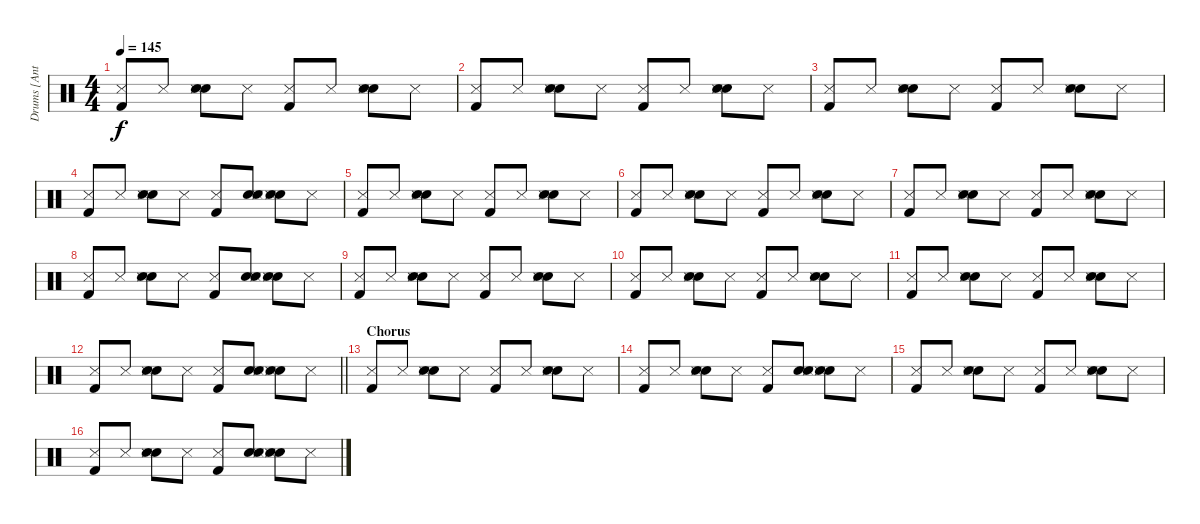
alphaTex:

\track ("Drums [Anthony Improgo]" "Drums [Ant") {instrument percussion}
\staff {score}
\articulation defaults
\ts (4 4)
\tempo 145
\clef neutral
\ks c
("Snare (side stick) 3" "Kick (hit) 2").8{dy f} "Snare (side stick) 3".8 ("Hand Clap (hit)" "Snare (hit) 2" "Snare (side stick) 3").8 "Snare (side stick) 3".8 ("Snare (side stick) 3" "Kick (hit) 2").8 "Snare (side stick) 3".8 ("Hand Clap (hit)" "Snare (hit) 2" "Snare (side stick) 3").8 "Snare (side stick) 3".8 |
("Snare (side stick) 3" "Kick (hit) 2").8 "Snare (side stick) 3".8 ("Hand Clap (hit)" "Snare (hit) 2" "Snare (side stick) 3").8 "Snare (side stick) 3".8 ("Snare (side stick) 3" "Kick (hit) 2").8 "Snare (side stick) 3".8 ("Hand Clap (hit)" "Snare (hit) 2" "Snare (side stick) 3").8 "Snare (side stick) 3".8 |
("Snare (side stick) 3" "Kick (hit) 2").8 "Snare (side stick) 3".8 ("Hand Clap (hit)" "Snare (hit) 2" "Snare (side stick) 3").8 "Snare (side stick) 3".8 ("Snare (side stick) 3" "Kick (hit) 2").8 "Snare (side stick) 3".8 ("Hand Clap (hit)" "Snare (hit) 2" "Snare (side stick) 3").8 "Snare (side stick) 3".8 |
("Snare (side stick) 3" "Kick (hit) 2").8 "Snare (side stick) 3".8 ("Hand Clap (hit)" "Snare (hit) 2" "Snare (side stick) 3").8 "Snare (side stick) 3".8 ("Snare (side stick) 3" "Kick (hit) 2").8 ("Hand Clap (hit)" "Snare (hit) 2" "Snare (side stick) 3").8 ("Hand Clap (hit)" "Snare (hit) 2" "Snare (side stick) 3").8 "Snare (side stick) 3".8 |
("Snare (side stick) 3" "Kick (hit) 2").8 "Snare (side stick) 3".8 ("Hand Clap (hit)" "Snare (hit) 2" "Snare (side stick) 3").8 "Snare (side stick) 3".8 ("Snare (side stick) 3" "Kick (hit) 2").8 "Snare (side stick) 3".8 ("Hand Clap (hit)" "Snare (hit) 2" "Snare (side stick) 3").8 "Snare (side stick) 3".8 |
("Snare (side stick) 3" "Kick (hit) 2").8 "Snare (side stick) 3".8 ("Hand Clap (hit)" "Snare (hit) 2" "Snare (side stick) 3").8 "Snare (side stick) 3".8 ("Snare (side stick) 3" "Kick (hit) 2").8 "Snare (side stick) 3".8 ("Hand Clap (hit)" "Snare (hit) 2" "Snare (side stick) 3").8 "Snare (side stick) 3".8 |
("Snare (side stick) 3" "Kick (hit) 2").8 "Snare (side stick) 3".8 ("Hand Clap (hit)" "Snare (hit) 2" "Snare (side stick) 3").8 "Snare (side stick) 3".8 ("Snare (side stick) 3" "Kick (hit) 2").8 "Snare (side stick) 3".8 ("Hand Clap (hit)" "Snare (hit) 2" "Snare (side stick) 3").8 "Snare (side stick) 3".8 |
("Snare (side stick) 3" "Kick (hit) 2").8 "Snare (side stick) 3".8 ("Hand Clap (hit)" "Snare (hit) 2" "Snare (side stick) 3").8 "Snare (side stick) 3".8 ("Snare (side stick) 3" "Kick (hit) 2").8 ("Hand Clap (hit)" "Snare (hit) 2" "Snare (side stick) 3").8 ("Hand Clap (hit)" "Snare (hit) 2" "Snare (side stick) 3").8 "Snare (side stick) 3".8 |
("Snare (side stick) 3" "Kick (hit) 2").8 "Snare (side stick) 3".8 ("Hand Clap (hit)" "Snare (hit) 2" "Snare (side stick) 3").8 "Snare (side stick) 3".8 ("Snare (side stick) 3" "Kick (hit) 2").8 "Snare (side stick) 3".8 ("Hand Clap (hit)" "Snare (hit) 2" "Snare (side stick) 3").8 "Snare (side stick) 3".8 |
("Snare (side stick) 3" "Kick (hit) 2").8 "Snare (side stick) 3".8 ("Hand Clap (hit)" "Snare (hit) 2" "Snare (side stick) 3").8 "Snare (side stick) 3".8 ("Snare (side stick) 3" "Kick (hit) 2").8 "Snare (side stick) 3".8 ("Hand Clap (hit)" "Snare (hit) 2" "Snare (side stick) 3").8 "Snare (side stick) 3".8 |
("Snare (side stick) 3" "Kick (hit) 2").8 "Snare (side stick) 3".8 ("Hand Clap (hit)" "Snare (hit) 2" "Snare (side stick) 3").8 "Snare (side stick) 3".8 ("Snare (side stick) 3" "Kick (hit) 2").8 "Snare (side stick) 3".8 ("Hand Clap (hit)" "Snare (hit) 2" "Snare (side stick) 3").8 "Snare (side stick) 3".8 |
\barLineRight lightlight
("Snare (side stick) 3" "Kick (hit) 2").8 "Snare (side stick) 3".8 ("Hand Clap (hit)" "Snare (hit) 2" "Snare (side stick) 3").8 "Snare (side stick) 3".8 ("Snare (side stick) 3" "Kick (hit) 2").8 ("Hand Clap (hit)" "Snare (hit) 2" "Snare (side stick) 3").8 ("Hand Clap (hit)" "Snare (hit) 2" "Snare (side stick) 3").8 "Snare (side stick) 3".8 |
\section ("" "Chorus")
("Snare (side stick) 3" "Kick (hit) 2").8 "Snare (side stick) 3".8 ("Hand Clap (hit)" "Snare (hit) 2" "Snare (side stick) 3").8 "Snare (side stick) 3".8 ("Snare (side stick) 3" "Kick (hit) 2").8 "Snare (side stick) 3".8 ("Hand Clap (hit)" "Snare (hit) 2" "Snare (side stick) 3").8 "Snare (side stick) 3".8 |
("Snare (side stick) 3" "Kick (hit) 2").8 "Snare (side stick) 3".8 ("Hand Clap (hit)" "Snare (hit) 2" "Snare (side stick) 3").8 "Snare (side stick) 3".8 ("Snare (side stick) 3" "Kick (hit) 2").8 ("Hand Clap (hit)" "Snare (hit) 2" "Snare (side stick) 3").8 ("Hand Clap (hit)" "Snare (hit) 2" "Snare (side stick) 3").8 "Snare (side stick) 3".8 |
("Snare (side stick) 3" "Kick (hit) 2").8 "Snare (side stick) 3".8 ("Hand Clap (hit)" "Snare (hit) 2" "Snare (side stick) 3").8 "Snare (side stick) 3".8 ("Snare (side stick) 3" "Kick (hit) 2").8 "Snare (side stick) 3".8 ("Hand Clap (hit)" "Snare (hit) 2" "Snare (side stick) 3").8 "Snare (side stick) 3".8 |
("Snare (side stick) 3" "Kick (hit) 2").8 "Snare (side stick) 3".8 ("Hand Clap (hit)" "Snare (hit) 2" "Snare (side stick) 3").8 "Snare (side stick) 3".8 ("Snare (side stick) 3" "Kick (hit) 2").8 ("Hand Clap (hit)" "Snare (hit) 2" "Snare (side stick) 3").8 ("Hand Clap (hit)" "Snare (hit) 2" "Snare (side stick) 3").8 "Snare (side stick) 3".8
